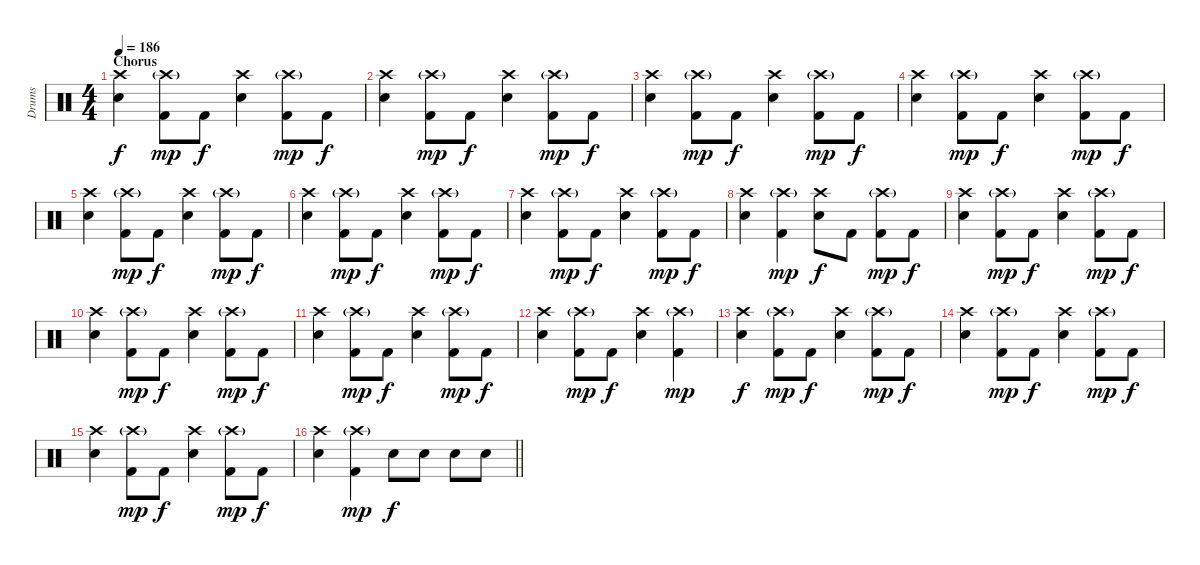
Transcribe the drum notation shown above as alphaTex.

\track ("Drums" "Drums") {instrument percussion}
\staff {score}
\articulation defaults
\ts (4 4)
\section ("" "Chorus")
\tempo 186
\clef neutral
\ks c
("Crash high (hit)" "Electric Snare (hit)").4{dy f} ("Crash high (hit)"{g} "Kick (hit) 2").8{dy mp} "Kick (hit) 2".8{dy f} ("Crash high (hit)" "Electric Snare (hit)").4 ("Crash high (hit)"{g} "Kick (hit) 2").8{dy mp} "Kick (hit) 2".8{dy f} |
("Crash high (hit)" "Electric Snare (hit)").4 ("Crash high (hit)"{g} "Kick (hit) 2").8{dy mp} "Kick (hit) 2".8{dy f} ("Crash high (hit)" "Electric Snare (hit)").4 ("Crash high (hit)"{g} "Kick (hit) 2").8{dy mp} "Kick (hit) 2".8{dy f} |
("Crash high (hit)" "Electric Snare (hit)").4 ("Crash high (hit)"{g} "Kick (hit) 2").8{dy mp} "Kick (hit) 2".8{dy f} ("Crash high (hit)" "Electric Snare (hit)").4 ("Crash high (hit)"{g} "Kick (hit) 2").8{dy mp} "Kick (hit) 2".8{dy f} |
("Crash high (hit)" "Electric Snare (hit)").4 ("Crash high (hit)"{g} "Kick (hit) 2").8{dy mp} "Kick (hit) 2".8{dy f} ("Crash high (hit)" "Electric Snare (hit)").4 ("Crash high (hit)"{g} "Kick (hit) 2").8{dy mp} "Kick (hit) 2".8{dy f} |
("Crash high (hit)" "Electric Snare (hit)").4 ("Crash high (hit)"{g} "Kick (hit) 2").8{dy mp} "Kick (hit) 2".8{dy f} ("Crash high (hit)" "Electric Snare (hit)").4 ("Crash high (hit)"{g} "Kick (hit) 2").8{dy mp} "Kick (hit) 2".8{dy f} |
("Crash high (hit)" "Electric Snare (hit)").4 ("Crash high (hit)"{g} "Kick (hit) 2").8{dy mp} "Kick (hit) 2".8{dy f} ("Crash high (hit)" "Electric Snare (hit)").4 ("Crash high (hit)"{g} "Kick (hit) 2").8{dy mp} "Kick (hit) 2".8{dy f} |
("Crash high (hit)" "Electric Snare (hit)").4 ("Crash high (hit)"{g} "Kick (hit) 2").8{dy mp} "Kick (hit) 2".8{dy f} ("Crash high (hit)" "Electric Snare (hit)").4 ("Crash high (hit)"{g} "Kick (hit) 2").8{dy mp} "Kick (hit) 2".8{dy f} |
("Crash high (hit)" "Electric Snare (hit)").4 ("Crash high (hit)"{g} "Kick (hit) 2").4{dy mp} ("Crash high (hit)" "Electric Snare (hit)").8{dy f} "Kick (hit) 2".8 ("Crash high (hit)"{g} "Kick (hit) 2").8{dy mp} "Kick (hit) 2".8{dy f} |
("Crash high (hit)" "Electric Snare (hit)").4 ("Crash high (hit)"{g} "Kick (hit) 2").8{dy mp} "Kick (hit) 2".8{dy f} ("Crash high (hit)" "Electric Snare (hit)").4 ("Crash high (hit)"{g} "Kick (hit) 2").8{dy mp} "Kick (hit) 2".8{dy f} |
("Crash high (hit)" "Electric Snare (hit)").4 ("Crash high (hit)"{g} "Kick (hit) 2").8{dy mp} "Kick (hit) 2".8{dy f} ("Crash high (hit)" "Electric Snare (hit)").4 ("Crash high (hit)"{g} "Kick (hit) 2").8{dy mp} "Kick (hit) 2".8{dy f} |
("Crash high (hit)" "Electric Snare (hit)").4 ("Crash high (hit)"{g} "Kick (hit) 2").8{dy mp} "Kick (hit) 2".8{dy f} ("Crash high (hit)" "Electric Snare (hit)").4 ("Crash high (hit)"{g} "Kick (hit) 2").8{dy mp} "Kick (hit) 2".8{dy f} |
("Crash high (hit)" "Electric Snare (hit)").4 ("Crash high (hit)"{g} "Kick (hit) 2").8{dy mp} "Kick (hit) 2".8{dy f} ("Crash high (hit)" "Electric Snare (hit)").4 ("Crash high (hit)"{g} "Kick (hit) 2").4{dy mp} |
("Crash high (hit)" "Electric Snare (hit)").4{dy f} ("Crash high (hit)"{g} "Kick (hit) 2").8{dy mp} "Kick (hit) 2".8{dy f} ("Crash high (hit)" "Electric Snare (hit)").4 ("Crash high (hit)"{g} "Kick (hit) 2").8{dy mp} "Kick (hit) 2".8{dy f} |
("Crash high (hit)" "Electric Snare (hit)").4 ("Crash high (hit)"{g} "Kick (hit) 2").8{dy mp} "Kick (hit) 2".8{dy f} ("Crash high (hit)" "Electric Snare (hit)").4 ("Crash high (hit)"{g} "Kick (hit) 2").8{dy mp} "Kick (hit) 2".8{dy f} |
("Crash high (hit)" "Electric Snare (hit)").4 ("Crash high (hit)"{g} "Kick (hit) 2").8{dy mp} "Kick (hit) 2".8{dy f} ("Crash high (hit)" "Electric Snare (hit)").4 ("Crash high (hit)"{g} "Kick (hit) 2").8{dy mp} "Kick (hit) 2".8{dy f} |
\barLineRight lightlight
("Crash high (hit)" "Electric Snare (hit)").4 ("Crash high (hit)"{g} "Kick (hit) 2").4{dy mp} "Electric Snare (hit)".8{dy f} "Electric Snare (hit)".8 "Electric Snare (hit)".8 "Electric Snare (hit)".8
